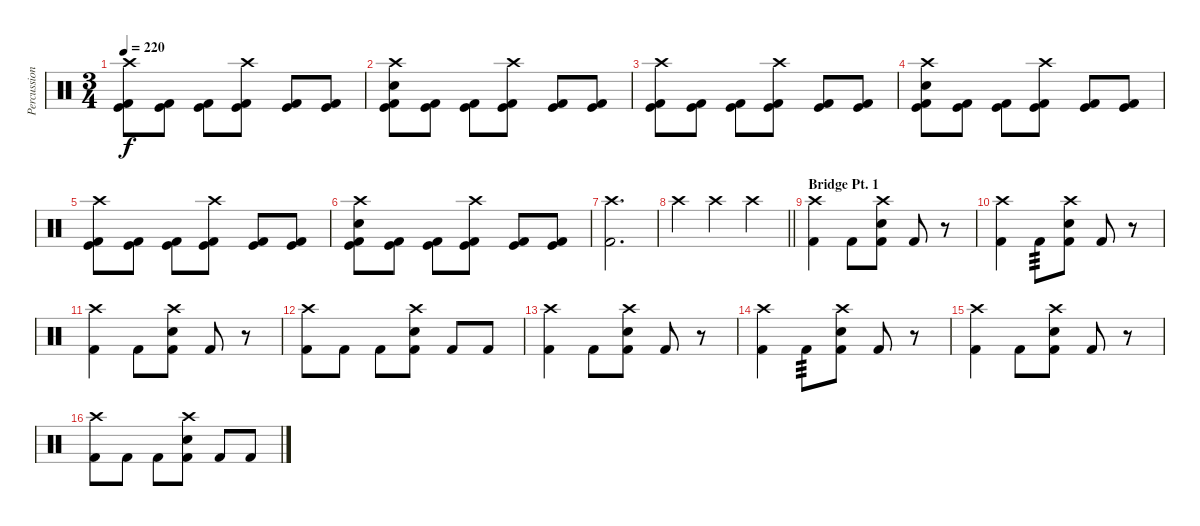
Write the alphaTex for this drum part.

\track ("Percussion" "Percussion") {instrument percussion}
\staff {score}
\articulation defaults
\ts (3 4)
\tempo 220
\clef neutral
\ks c
("Crash high (hit)" "Kick (hit)" "Kick (hit) 2").8{dy f} ("Kick (hit)" "Kick (hit) 2").8 ("Kick (hit)" "Kick (hit) 2").8 ("Crash high (hit)" "Kick (hit)" "Kick (hit) 2").8 ("Kick (hit)" "Kick (hit) 2").8 ("Kick (hit)" "Kick (hit) 2").8 |
("Crash high (hit)" "Electric Snare (hit)" "Kick (hit)" "Kick (hit) 2").8 ("Kick (hit)" "Kick (hit) 2").8 ("Kick (hit)" "Kick (hit) 2").8 ("Crash high (hit)" "Kick (hit)" "Kick (hit) 2").8 ("Kick (hit)" "Kick (hit) 2").8 ("Kick (hit)" "Kick (hit) 2").8 |
("Crash high (hit)" "Kick (hit)" "Kick (hit) 2").8 ("Kick (hit)" "Kick (hit) 2").8 ("Kick (hit)" "Kick (hit) 2").8 ("Crash high (hit)" "Kick (hit)" "Kick (hit) 2").8 ("Kick (hit)" "Kick (hit) 2").8 ("Kick (hit)" "Kick (hit) 2").8 |
("Crash high (hit)" "Electric Snare (hit)" "Kick (hit)" "Kick (hit) 2").8 ("Kick (hit)" "Kick (hit) 2").8 ("Kick (hit)" "Kick (hit) 2").8 ("Crash high (hit)" "Kick (hit)" "Kick (hit) 2").8 ("Kick (hit)" "Kick (hit) 2").8 ("Kick (hit)" "Kick (hit) 2").8 |
("Crash high (hit)" "Kick (hit)" "Kick (hit) 2").8 ("Kick (hit)" "Kick (hit) 2").8 ("Kick (hit)" "Kick (hit) 2").8 ("Crash high (hit)" "Kick (hit)" "Kick (hit) 2").8 ("Kick (hit)" "Kick (hit) 2").8 ("Kick (hit)" "Kick (hit) 2").8 |
("Crash high (hit)" "Electric Snare (hit)" "Kick (hit)" "Kick (hit) 2").8 ("Kick (hit)" "Kick (hit) 2").8 ("Kick (hit)" "Kick (hit) 2").8 ("Crash high (hit)" "Kick (hit)" "Kick (hit) 2").8 ("Kick (hit)" "Kick (hit) 2").8 ("Kick (hit)" "Kick (hit) 2").8 |
("Crash high (hit)" "Kick (hit) 2").2{d} |
\barLineRight lightlight "Crash high (hit)".4 "Crash high (hit)".4 "Crash high (hit)".4
|
\section ("" "Bridge Pt. 1")
("Crash high (hit)" "Kick (hit) 2").4 "Kick (hit) 2".8 ("Crash high (hit)" "Electric Snare (hit)" "Kick (hit) 2").8 "Kick (hit) 2".8 r.8 |
("Crash high (hit)" "Kick (hit) 2").4 "Kick (hit) 2".8{tp 3} ("Crash high (hit)" "Electric Snare (hit)" "Kick (hit) 2").8 "Kick (hit) 2".8 r.8 |
("Crash high (hit)" "Kick (hit) 2").4 "Kick (hit) 2".8 ("Crash high (hit)" "Electric Snare (hit)" "Kick (hit) 2").8 "Kick (hit) 2".8 r.8 |
("Crash high (hit)" "Kick (hit) 2").8 "Kick (hit) 2".8 "Kick (hit) 2".8 ("Crash high (hit)" "Electric Snare (hit)" "Kick (hit) 2").8 "Kick (hit) 2".8 "Kick (hit) 2".8 |
("Crash high (hit)" "Kick (hit) 2").4 "Kick (hit) 2".8 ("Crash high (hit)" "Electric Snare (hit)" "Kick (hit) 2").8 "Kick (hit) 2".8 r.8 |
("Crash high (hit)" "Kick (hit) 2").4 "Kick (hit) 2".8{tp 3} ("Crash high (hit)" "Electric Snare (hit)" "Kick (hit) 2").8 "Kick (hit) 2".8 r.8 |
("Crash high (hit)" "Kick (hit) 2").4 "Kick (hit) 2".8 ("Crash high (hit)" "Electric Snare (hit)" "Kick (hit) 2").8 "Kick (hit) 2".8 r.8 |
("Crash high (hit)" "Kick (hit) 2").8 "Kick (hit) 2".8 "Kick (hit) 2".8 ("Crash high (hit)" "Electric Snare (hit)" "Kick (hit) 2").8 "Kick (hit) 2".8 "Kick (hit) 2".8
